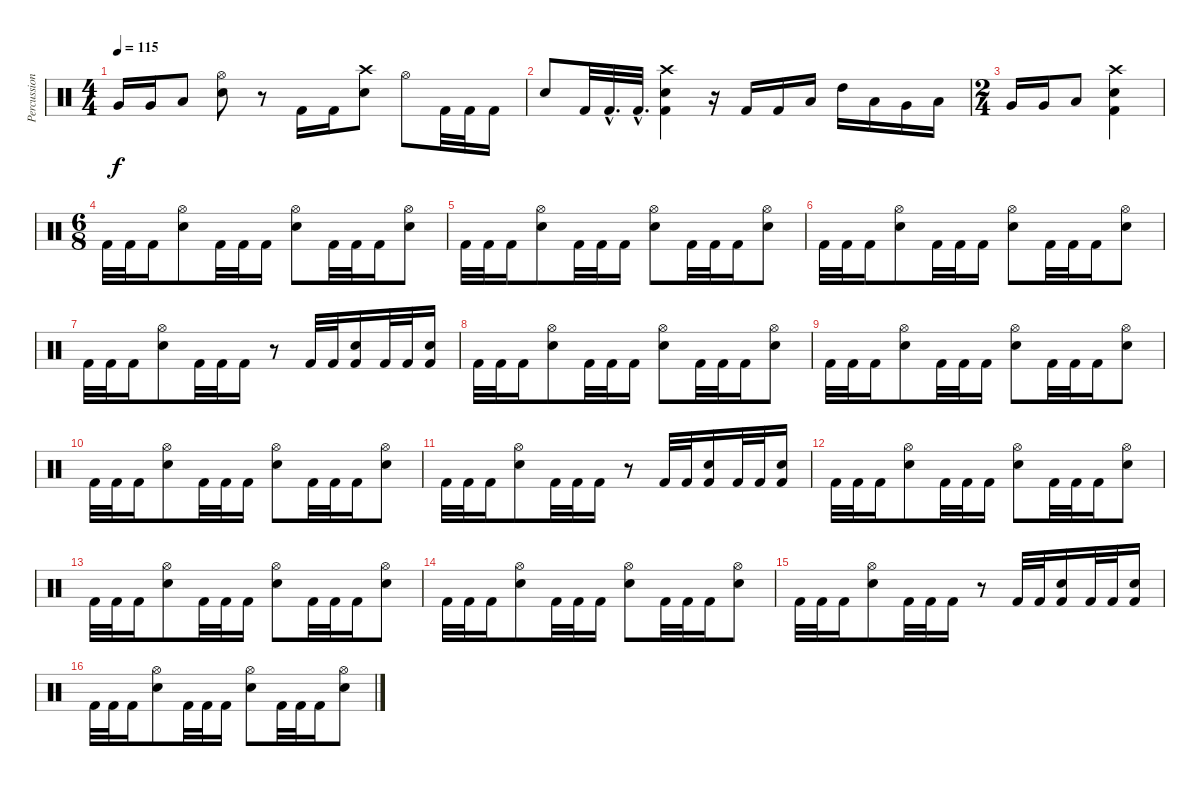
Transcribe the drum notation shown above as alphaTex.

\track ("Percussioni" "Percussion") {instrument percussion}
\staff {score}
\articulation defaults
\ts (4 4)
\tempo 115
\clef neutral
\ks c "Very Low Tom (hit)".16{dy f} "Very Low Tom (hit)".16 "Low Floor Tom (hit)".8
("Hi-Hat (open)" "Electric Snare (hit)").8 r.8 "Kick (hit) 2".16 "Kick (hit) 2".16 ("Crash high (hit)" "Electric Snare (hit)").8 "Hi-Hat (open)".8 "Kick (hit) 2".32 "Kick (hit) 2".32 "Kick (hit) 2".16 |
"Electric Snare (hit)".8 "Kick (hit) 2".32 "Kick (hit) 2"{hac}.32{d} "Kick (hit) 2"{hac}.32{d} ("Crash high (hit)" "Electric Snare (hit)" "Kick (hit) 2").4 r.16 "Kick (hit) 2".16 "Kick (hit) 2".16 "Low Tom (hit)".16 "High Tom (hit)".16 "Low Tom (hit)".16 "Very Low Tom (hit)".16 "Low Tom (hit)".16 |
\ts (2 4)
"Very Low Tom (hit)".16 "Very Low Tom (hit)".16 "Low Floor Tom (hit)".8 ("Crash high (hit)" "Electric Snare (hit)" "Kick (hit) 2").4 |
\ts (6 8)
"Kick (hit) 2".32 "Kick (hit) 2".32 "Kick (hit) 2".16 ("Hi-Hat (open)" "Electric Snare (hit)").8 "Kick (hit) 2".32 "Kick (hit) 2".32 "Kick (hit) 2".16 ("Hi-Hat (open)" "Electric Snare (hit)").8 "Kick (hit) 2".32 "Kick (hit) 2".32 "Kick (hit) 2".16 ("Hi-Hat (open)" "Electric Snare (hit)").8 |
"Kick (hit) 2".32 "Kick (hit) 2".32 "Kick (hit) 2".16 ("Hi-Hat (open)" "Electric Snare (hit)").8 "Kick (hit) 2".32 "Kick (hit) 2".32 "Kick (hit) 2".16 ("Hi-Hat (open)" "Electric Snare (hit)").8 "Kick (hit) 2".32 "Kick (hit) 2".32 "Kick (hit) 2".16 ("Hi-Hat (open)" "Electric Snare (hit)").8 |
"Kick (hit) 2".32 "Kick (hit) 2".32 "Kick (hit) 2".16 ("Hi-Hat (open)" "Electric Snare (hit)").8 "Kick (hit) 2".32 "Kick (hit) 2".32 "Kick (hit) 2".16 ("Hi-Hat (open)" "Electric Snare (hit)").8 "Kick (hit) 2".32 "Kick (hit) 2".32 "Kick (hit) 2".16 ("Hi-Hat (open)" "Electric Snare (hit)").8 |
"Kick (hit) 2".32 "Kick (hit) 2".32 "Kick (hit) 2".16 ("Hi-Hat (open)" "Electric Snare (hit)").8 "Kick (hit) 2".32 "Kick (hit) 2".32 "Kick (hit) 2".16 r.8 "Kick (hit) 2".32 "Kick (hit) 2".32 ("Electric Snare (hit)" "Kick (hit) 2").16 "Kick (hit) 2".32 "Kick (hit) 2".32 ("Electric Snare (hit)" "Kick (hit) 2").16 |
"Kick (hit) 2".32 "Kick (hit) 2".32 "Kick (hit) 2".16 ("Hi-Hat (open)" "Electric Snare (hit)").8 "Kick (hit) 2".32 "Kick (hit) 2".32 "Kick (hit) 2".16 ("Hi-Hat (open)" "Electric Snare (hit)").8 "Kick (hit) 2".32 "Kick (hit) 2".32 "Kick (hit) 2".16 ("Hi-Hat (open)" "Electric Snare (hit)").8 |
"Kick (hit) 2".32 "Kick (hit) 2".32 "Kick (hit) 2".16 ("Hi-Hat (open)" "Electric Snare (hit)").8 "Kick (hit) 2".32 "Kick (hit) 2".32 "Kick (hit) 2".16 ("Hi-Hat (open)" "Electric Snare (hit)").8 "Kick (hit) 2".32 "Kick (hit) 2".32 "Kick (hit) 2".16 ("Hi-Hat (open)" "Electric Snare (hit)").8 |
"Kick (hit) 2".32 "Kick (hit) 2".32 "Kick (hit) 2".16 ("Hi-Hat (open)" "Electric Snare (hit)").8 "Kick (hit) 2".32 "Kick (hit) 2".32 "Kick (hit) 2".16 ("Hi-Hat (open)" "Electric Snare (hit)").8 "Kick (hit) 2".32 "Kick (hit) 2".32 "Kick (hit) 2".16 ("Hi-Hat (open)" "Electric Snare (hit)").8 |
"Kick (hit) 2".32 "Kick (hit) 2".32 "Kick (hit) 2".16 ("Hi-Hat (open)" "Electric Snare (hit)").8 "Kick (hit) 2".32 "Kick (hit) 2".32 "Kick (hit) 2".16 r.8 "Kick (hit) 2".32 "Kick (hit) 2".32 ("Electric Snare (hit)" "Kick (hit) 2").16 "Kick (hit) 2".32 "Kick (hit) 2".32 ("Electric Snare (hit)" "Kick (hit) 2").16 |
"Kick (hit) 2".32 "Kick (hit) 2".32 "Kick (hit) 2".16 ("Hi-Hat (open)" "Electric Snare (hit)").8 "Kick (hit) 2".32 "Kick (hit) 2".32 "Kick (hit) 2".16 ("Hi-Hat (open)" "Electric Snare (hit)").8 "Kick (hit) 2".32 "Kick (hit) 2".32 "Kick (hit) 2".16 ("Hi-Hat (open)" "Electric Snare (hit)").8 |
"Kick (hit) 2".32 "Kick (hit) 2".32 "Kick (hit) 2".16 ("Hi-Hat (open)" "Electric Snare (hit)").8 "Kick (hit) 2".32 "Kick (hit) 2".32 "Kick (hit) 2".16 ("Hi-Hat (open)" "Electric Snare (hit)").8 "Kick (hit) 2".32 "Kick (hit) 2".32 "Kick (hit) 2".16 ("Hi-Hat (open)" "Electric Snare (hit)").8 |
"Kick (hit) 2".32 "Kick (hit) 2".32 "Kick (hit) 2".16 ("Hi-Hat (open)" "Electric Snare (hit)").8 "Kick (hit) 2".32 "Kick (hit) 2".32 "Kick (hit) 2".16 ("Hi-Hat (open)" "Electric Snare (hit)").8 "Kick (hit) 2".32 "Kick (hit) 2".32 "Kick (hit) 2".16 ("Hi-Hat (open)" "Electric Snare (hit)").8 |
"Kick (hit) 2".32 "Kick (hit) 2".32 "Kick (hit) 2".16 ("Hi-Hat (open)" "Electric Snare (hit)").8 "Kick (hit) 2".32 "Kick (hit) 2".32 "Kick (hit) 2".16 r.8 "Kick (hit) 2".32 "Kick (hit) 2".32 ("Electric Snare (hit)" "Kick (hit) 2").16 "Kick (hit) 2".32 "Kick (hit) 2".32 ("Electric Snare (hit)" "Kick (hit) 2").16 |
"Kick (hit) 2".32 "Kick (hit) 2".32 "Kick (hit) 2".16 ("Hi-Hat (open)" "Electric Snare (hit)").8 "Kick (hit) 2".32 "Kick (hit) 2".32 "Kick (hit) 2".16 ("Hi-Hat (open)" "Electric Snare (hit)").8 "Kick (hit) 2".32 "Kick (hit) 2".32 "Kick (hit) 2".16 ("Hi-Hat (open)" "Electric Snare (hit)").8
